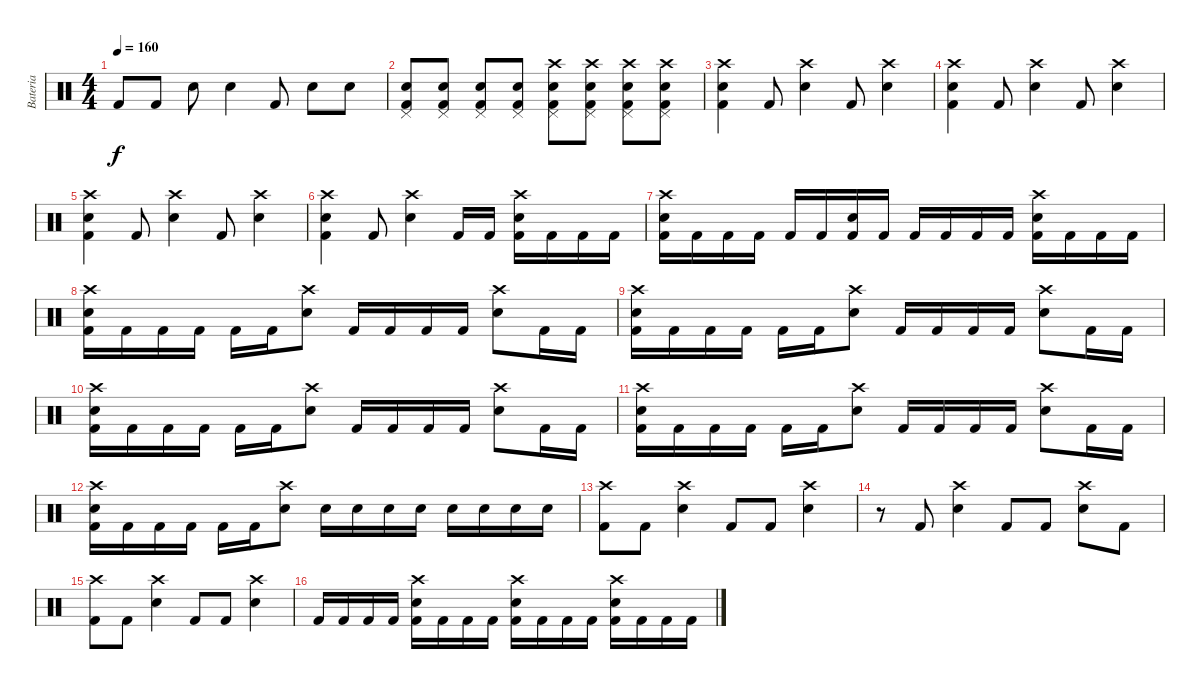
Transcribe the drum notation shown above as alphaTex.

\track ("Bateria" "Bateria") {instrument percussion}
\staff {score}
\articulation defaults
\ts (4 4)
\tempo 160
\clef neutral
\ks c "Kick (hit) 2".8{dy f} "Kick (hit) 2".8 "Electric Snare (hit)".8 "Electric Snare (hit)".4 "Kick (hit) 2".8 "Electric Snare (hit)".8 "Electric Snare (hit)".8
|
("Pedal Hi-Hat (hit)" "Electric Snare (hit)" "Kick (hit) 2").8 ("Pedal Hi-Hat (hit)" "Electric Snare (hit)" "Kick (hit) 2").8 ("Pedal Hi-Hat (hit)" "Electric Snare (hit)" "Kick (hit) 2").8 ("Pedal Hi-Hat (hit)" "Electric Snare (hit)" "Kick (hit) 2").8 ("Crash high (hit)" "Pedal Hi-Hat (hit)" "Electric Snare (hit)" "Kick (hit) 2").8 ("Crash high (hit)" "Pedal Hi-Hat (hit)" "Electric Snare (hit)" "Kick (hit) 2").8 ("Crash high (hit)" "Pedal Hi-Hat (hit)" "Electric Snare (hit)" "Kick (hit) 2").8 ("Crash high (hit)" "Pedal Hi-Hat (hit)" "Electric Snare (hit)" "Kick (hit) 2").8 |
("Electric Snare (hit)" "Kick (hit) 2" "Crash high (hit)").4 "Kick (hit) 2".8 ("Electric Snare (hit)" "Crash high (hit)").4 "Kick (hit) 2".8 ("Electric Snare (hit)" "Crash high (hit)").4 |
("Electric Snare (hit)" "Kick (hit) 2" "Crash high (hit)").4 "Kick (hit) 2".8 ("Electric Snare (hit)" "Crash high (hit)").4 "Kick (hit) 2".8 ("Electric Snare (hit)" "Crash high (hit)").4 |
("Electric Snare (hit)" "Kick (hit) 2" "Crash high (hit)").4 "Kick (hit) 2".8 ("Electric Snare (hit)" "Crash high (hit)").4 "Kick (hit) 2".8 ("Electric Snare (hit)" "Crash high (hit)").4 |
("Electric Snare (hit)" "Kick (hit) 2" "Crash high (hit)").4 "Kick (hit) 2".8 ("Electric Snare (hit)" "Crash high (hit)").4 "Kick (hit) 2".16 "Kick (hit) 2".16 ("Kick (hit) 2" "Electric Snare (hit)" "Crash high (hit)").16 "Kick (hit) 2".16 "Kick (hit) 2".16 "Kick (hit) 2".16 |
("Kick (hit) 2" "Electric Snare (hit)" "Crash high (hit)").16 "Kick (hit) 2".16 "Kick (hit) 2".16 "Kick (hit) 2".16 "Kick (hit) 2".16 "Kick (hit) 2".16 ("Kick (hit) 2" "Electric Snare (hit)").16 "Kick (hit) 2".16 "Kick (hit) 2".16 "Kick (hit) 2".16 "Kick (hit) 2".16 "Kick (hit) 2".16 ("Kick (hit) 2" "Electric Snare (hit)" "Crash high (hit)").16 "Kick (hit) 2".16 "Kick (hit) 2".16 "Kick (hit) 2".16 |
("Electric Snare (hit)" "Kick (hit) 2" "Crash high (hit)").16 "Kick (hit) 2".16 "Kick (hit) 2".16 "Kick (hit) 2".16 "Kick (hit) 2".16 "Kick (hit) 2".16 ("Electric Snare (hit)" "Crash high (hit)").8 "Kick (hit) 2".16 "Kick (hit) 2".16 "Kick (hit) 2".16 "Kick (hit) 2".16 ("Electric Snare (hit)" "Crash high (hit)").8 "Kick (hit) 2".16 "Kick (hit) 2".16 |
("Electric Snare (hit)" "Kick (hit) 2" "Crash high (hit)").16 "Kick (hit) 2".16 "Kick (hit) 2".16 "Kick (hit) 2".16 "Kick (hit) 2".16 "Kick (hit) 2".16 ("Electric Snare (hit)" "Crash high (hit)").8 "Kick (hit) 2".16 "Kick (hit) 2".16 "Kick (hit) 2".16 "Kick (hit) 2".16 ("Electric Snare (hit)" "Crash high (hit)").8 "Kick (hit) 2".16 "Kick (hit) 2".16 |
("Electric Snare (hit)" "Kick (hit) 2" "Crash high (hit)").16 "Kick (hit) 2".16 "Kick (hit) 2".16 "Kick (hit) 2".16 "Kick (hit) 2".16 "Kick (hit) 2".16 ("Electric Snare (hit)" "Crash high (hit)").8 "Kick (hit) 2".16 "Kick (hit) 2".16 "Kick (hit) 2".16 "Kick (hit) 2".16 ("Electric Snare (hit)" "Crash high (hit)").8 "Kick (hit) 2".16 "Kick (hit) 2".16 |
("Electric Snare (hit)" "Kick (hit) 2" "Crash high (hit)").16 "Kick (hit) 2".16 "Kick (hit) 2".16 "Kick (hit) 2".16 "Kick (hit) 2".16 "Kick (hit) 2".16 ("Electric Snare (hit)" "Crash high (hit)").8 "Kick (hit) 2".16 "Kick (hit) 2".16 "Kick (hit) 2".16 "Kick (hit) 2".16 ("Electric Snare (hit)" "Crash high (hit)").8 "Kick (hit) 2".16 "Kick (hit) 2".16 |
("Electric Snare (hit)" "Kick (hit) 2" "Crash high (hit)").16 "Kick (hit) 2".16 "Kick (hit) 2".16 "Kick (hit) 2".16 "Kick (hit) 2".16 "Kick (hit) 2".16 ("Electric Snare (hit)" "Crash high (hit)").8 "Electric Snare (hit)".16 "Electric Snare (hit)".16 "Electric Snare (hit)".16 "Electric Snare (hit)".16 "Electric Snare (hit)".16 "Electric Snare (hit)".16 "Electric Snare (hit)".16 "Electric Snare (hit)".16 |
("Kick (hit) 2" "Crash high (hit)").8 "Kick (hit) 2".8 ("Electric Snare (hit)" "Crash high (hit)").4 "Kick (hit) 2".8 "Kick (hit) 2".8 ("Electric Snare (hit)" "Crash high (hit)").4 |
r.8 "Kick (hit) 2".8 ("Snare (hit) 2" "Crash high (hit)").4 "Kick (hit) 2".8 "Kick (hit) 2".8 ("Crash high (hit)" "Snare (hit) 2").8 "Kick (hit) 2".8 |
("Kick (hit) 2" "Crash high (hit)").8 "Kick (hit) 2".8 ("Electric Snare (hit)" "Crash high (hit)").4 "Kick (hit) 2".8 "Kick (hit) 2".8 ("Electric Snare (hit)" "Crash high (hit)").4 |
"Kick (hit) 2".16 "Kick (hit) 2".16 "Kick (hit) 2".16 "Kick (hit) 2".16 ("Crash high (hit)" "Kick (hit) 2" "Electric Snare (hit)").16 "Kick (hit) 2".16 "Kick (hit) 2".16 "Kick (hit) 2".16 ("Crash high (hit)" "Kick (hit) 2" "Electric Snare (hit)").16 "Kick (hit) 2".16 "Kick (hit) 2".16 "Kick (hit) 2".16 ("Crash high (hit)" "Kick (hit) 2" "Electric Snare (hit)").16 "Kick (hit) 2".16 "Kick (hit) 2".16 "Kick (hit) 2".16
